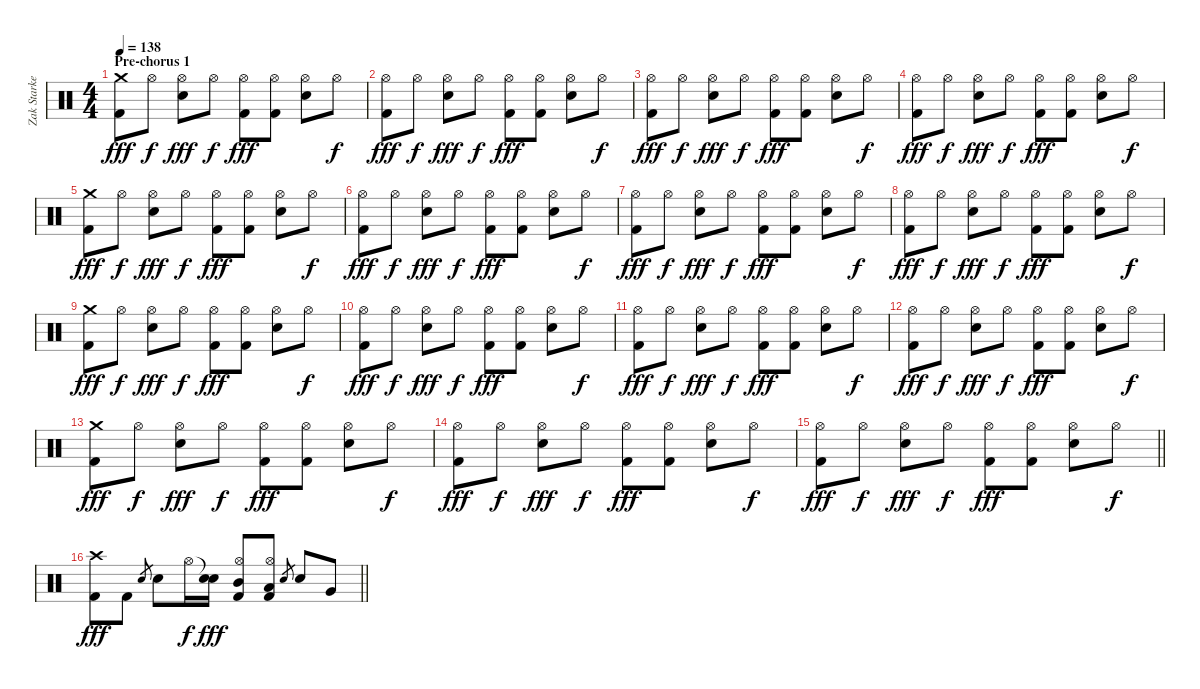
\track ("Zak Starkey" "Zak Starke") {instrument percussion}
\staff {score}
\articulation defaults
\ts (4 4)
\section ("" "Pre-chorus 1")
\tempo 138
\clef neutral
\ks c
("Crash medium (hit)" "Kick (hit) 2").8{dy fff} "Hi-Hat (open)".8{dy f} ("Hi-Hat (open)" "Snare (hit) 2").8{dy fff} "Hi-Hat (open)".8{dy f} ("Hi-Hat (open)" "Kick (hit) 2").8{dy fff} ("Hi-Hat (open)" "Kick (hit) 2").8 ("Hi-Hat (open)" "Snare (hit) 2").8 "Hi-Hat (open)".8{dy f} |
("Hi-Hat (open)" "Kick (hit) 2").8{dy fff} "Hi-Hat (open)".8{dy f} ("Hi-Hat (open)" "Snare (hit) 2").8{dy fff} "Hi-Hat (open)".8{dy f} ("Hi-Hat (open)" "Kick (hit) 2").8{dy fff} ("Hi-Hat (open)" "Kick (hit) 2").8 ("Hi-Hat (open)" "Snare (hit) 2").8 "Hi-Hat (open)".8{dy f} |
("Hi-Hat (open)" "Kick (hit) 2").8{dy fff} "Hi-Hat (open)".8{dy f} ("Hi-Hat (open)" "Snare (hit) 2").8{dy fff} "Hi-Hat (open)".8{dy f} ("Hi-Hat (open)" "Kick (hit) 2").8{dy fff} ("Hi-Hat (open)" "Kick (hit) 2").8 ("Hi-Hat (open)" "Snare (hit) 2").8 "Hi-Hat (open)".8{dy f} |
("Hi-Hat (open)" "Kick (hit) 2").8{dy fff} "Hi-Hat (open)".8{dy f} ("Hi-Hat (open)" "Snare (hit) 2").8{dy fff} "Hi-Hat (open)".8{dy f} ("Hi-Hat (open)" "Kick (hit) 2").8{dy fff} ("Hi-Hat (open)" "Kick (hit) 2").8 ("Hi-Hat (open)" "Snare (hit) 2").8 "Hi-Hat (open)".8{dy f} |
("Crash medium (hit)" "Kick (hit) 2").8{dy fff} "Hi-Hat (open)".8{dy f} ("Hi-Hat (open)" "Snare (hit) 2").8{dy fff} "Hi-Hat (open)".8{dy f} ("Hi-Hat (open)" "Kick (hit) 2").8{dy fff} ("Hi-Hat (open)" "Kick (hit) 2").8 ("Hi-Hat (open)" "Snare (hit) 2").8 "Hi-Hat (open)".8{dy f} |
("Hi-Hat (open)" "Kick (hit) 2").8{dy fff} "Hi-Hat (open)".8{dy f} ("Hi-Hat (open)" "Snare (hit) 2").8{dy fff} "Hi-Hat (open)".8{dy f} ("Hi-Hat (open)" "Kick (hit) 2").8{dy fff} ("Hi-Hat (open)" "Kick (hit) 2").8 ("Hi-Hat (open)" "Snare (hit) 2").8 "Hi-Hat (open)".8{dy f} |
("Hi-Hat (open)" "Kick (hit) 2").8{dy fff} "Hi-Hat (open)".8{dy f} ("Hi-Hat (open)" "Snare (hit) 2").8{dy fff} "Hi-Hat (open)".8{dy f} ("Hi-Hat (open)" "Kick (hit) 2").8{dy fff} ("Hi-Hat (open)" "Kick (hit) 2").8 ("Hi-Hat (open)" "Snare (hit) 2").8 "Hi-Hat (open)".8{dy f} |
("Hi-Hat (open)" "Kick (hit) 2").8{dy fff} "Hi-Hat (open)".8{dy f} ("Hi-Hat (open)" "Snare (hit) 2").8{dy fff} "Hi-Hat (open)".8{dy f} ("Hi-Hat (open)" "Kick (hit) 2").8{dy fff} ("Hi-Hat (open)" "Kick (hit) 2").8 ("Hi-Hat (open)" "Snare (hit) 2").8 "Hi-Hat (open)".8{dy f} |
("Crash medium (hit)" "Kick (hit) 2").8{dy fff} "Hi-Hat (open)".8{dy f} ("Hi-Hat (open)" "Snare (hit) 2").8{dy fff} "Hi-Hat (open)".8{dy f} ("Hi-Hat (open)" "Kick (hit) 2").8{dy fff} ("Hi-Hat (open)" "Kick (hit) 2").8 ("Hi-Hat (open)" "Snare (hit) 2").8 "Hi-Hat (open)".8{dy f} |
("Hi-Hat (open)" "Kick (hit) 2").8{dy fff} "Hi-Hat (open)".8{dy f} ("Hi-Hat (open)" "Snare (hit) 2").8{dy fff} "Hi-Hat (open)".8{dy f} ("Hi-Hat (open)" "Kick (hit) 2").8{dy fff} ("Hi-Hat (open)" "Kick (hit) 2").8 ("Hi-Hat (open)" "Snare (hit) 2").8 "Hi-Hat (open)".8{dy f} |
("Hi-Hat (open)" "Kick (hit) 2").8{dy fff} "Hi-Hat (open)".8{dy f} ("Hi-Hat (open)" "Snare (hit) 2").8{dy fff} "Hi-Hat (open)".8{dy f} ("Hi-Hat (open)" "Kick (hit) 2").8{dy fff} ("Hi-Hat (open)" "Kick (hit) 2").8 ("Hi-Hat (open)" "Snare (hit) 2").8 "Hi-Hat (open)".8{dy f} |
("Hi-Hat (open)" "Kick (hit) 2").8{dy fff} "Hi-Hat (open)".8{dy f} ("Hi-Hat (open)" "Snare (hit) 2").8{dy fff} "Hi-Hat (open)".8{dy f} ("Hi-Hat (open)" "Kick (hit) 2").8{dy fff} ("Hi-Hat (open)" "Kick (hit) 2").8 ("Hi-Hat (open)" "Snare (hit) 2").8 "Hi-Hat (open)".8{dy f} |
("Crash medium (hit)" "Kick (hit) 2").8{dy fff} "Hi-Hat (open)".8{dy f} ("Hi-Hat (open)" "Snare (hit) 2").8{dy fff} "Hi-Hat (open)".8{dy f} ("Hi-Hat (open)" "Kick (hit) 2").8{dy fff} ("Hi-Hat (open)" "Kick (hit) 2").8 ("Hi-Hat (open)" "Snare (hit) 2").8 "Hi-Hat (open)".8{dy f} |
("Hi-Hat (open)" "Kick (hit) 2").8{dy fff} "Hi-Hat (open)".8{dy f} ("Hi-Hat (open)" "Snare (hit) 2").8{dy fff} "Hi-Hat (open)".8{dy f} ("Hi-Hat (open)" "Kick (hit) 2").8{dy fff} ("Hi-Hat (open)" "Kick (hit) 2").8 ("Hi-Hat (open)" "Snare (hit) 2").8 "Hi-Hat (open)".8{dy f} |
\barLineRight lightlight
("Hi-Hat (open)" "Kick (hit) 2").8{dy fff} "Hi-Hat (open)".8{dy f} ("Hi-Hat (open)" "Snare (hit) 2").8{dy fff} "Hi-Hat (open)".8{dy f} ("Hi-Hat (open)" "Kick (hit) 2").8{dy fff} ("Hi-Hat (open)" "Kick (hit) 2").8 ("Hi-Hat (open)" "Snare (hit) 2").8 "Hi-Hat (open)".8{dy f} |
\barLineRight lightlight
("Crash high (hit)" "Kick (hit) 2").8{dy fff} "Kick (hit) 2".8 "Snare (hit) 2".8{gr} "Snare (hit) 2".8 "Hi-Hat (open)".16{dy f} ("Snare (hit)"{t} "Snare (hit) 2").16{dy fff} ("Hi-Hat (open)" "Mid Tom (hit)" "Kick (hit) 2").8 ("Hi-Hat (open)" "Low Tom (hit)" "Kick (hit) 2").8 "Snare (hit) 2".8{gr} "Snare (hit) 2".8 "Very Low Tom (hit)".8
